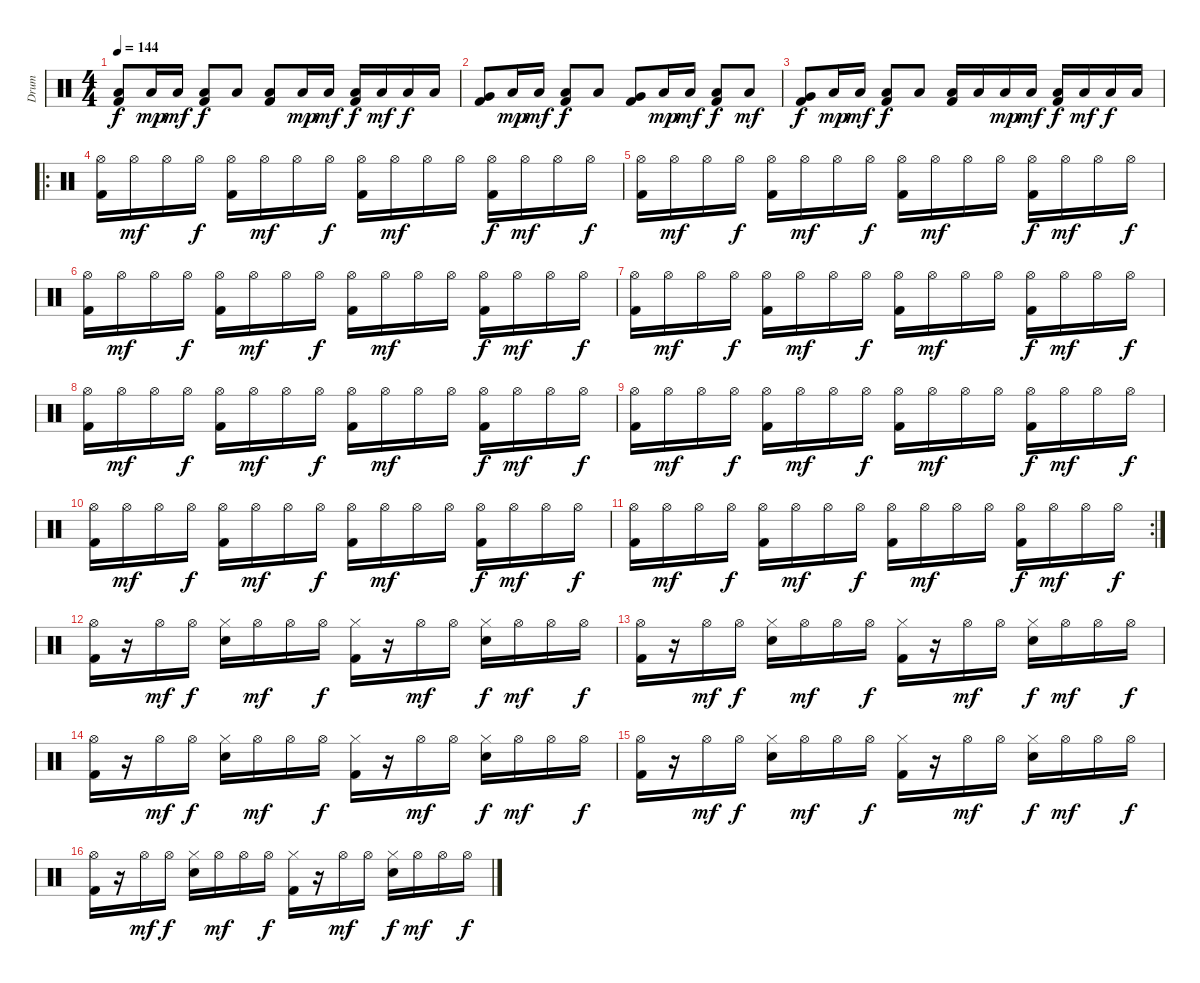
\track ("Drum" "Drum") {instrument percussion}
\staff {score}
\articulation defaults
\ts (4 4)
\tempo 144
\clef neutral
\ks c
("Kick (hit) 2" "Low Floor Tom (hit)").8{dy f} "Low Floor Tom (hit)".16{dy mp} "Low Floor Tom (hit)".16{dy mf} ("Kick (hit) 2" "Low Floor Tom (hit)").8{dy f} "Low Floor Tom (hit)".8 ("Kick (hit) 2" "Low Floor Tom (hit)").8 "Low Floor Tom (hit)".16{dy mp} "Low Floor Tom (hit)".16{dy mf} ("Kick (hit) 2" "Low Floor Tom (hit)").16{dy f} "Low Floor Tom (hit)".16{dy mf} "Low Floor Tom (hit)".16{dy f} "Low Floor Tom (hit)".16 |
("Kick (hit) 2" "Very Low Tom (hit)").8 "Low Floor Tom (hit)".16{dy mp} "Low Floor Tom (hit)".16{dy mf} ("Kick (hit) 2" "Low Floor Tom (hit)").8{dy f} "Low Floor Tom (hit)".8 ("Kick (hit) 2" "Very Low Tom (hit)").8 "Low Floor Tom (hit)".16{dy mp} "Low Floor Tom (hit)".16{dy mf} ("Kick (hit) 2" "Low Floor Tom (hit)").8{dy f} "Low Floor Tom (hit)".8{dy mf} |
("Kick (hit) 2" "Very Low Tom (hit)").8{dy f} "Low Floor Tom (hit)".16{dy mp} "Low Floor Tom (hit)".16{dy mf} ("Kick (hit) 2" "Low Floor Tom (hit)").8{dy f} "Low Floor Tom (hit)".8 ("Kick (hit) 2" "Low Floor Tom (hit)").16 "Low Floor Tom (hit)".16 "Low Floor Tom (hit)".16{dy mp} "Low Floor Tom (hit)".16{dy mf} ("Kick (hit) 2" "Low Floor Tom (hit)").16{dy f} "Low Floor Tom (hit)".16{dy mf} "Low Floor Tom (hit)".16{dy f} "Low Floor Tom (hit)".16 |
\ro
("Kick (hit) 2" "Hi-Hat (open)").16 "Hi-Hat (open)".16{dy mf} "Hi-Hat (open)".16 "Hi-Hat (open)".16{dy f} ("Kick (hit) 2" "Hi-Hat (open)").16 "Hi-Hat (open)".16{dy mf} "Hi-Hat (open)".16 "Hi-Hat (open)".16{dy f} ("Kick (hit) 2" "Hi-Hat (open)").16 "Hi-Hat (open)".16{dy mf} "Hi-Hat (open)".16 "Hi-Hat (open)".16 ("Kick (hit) 2" "Hi-Hat (open)").16{dy f} "Hi-Hat (open)".16{dy mf} "Hi-Hat (open)".16 "Hi-Hat (open)".16{dy f} |
("Kick (hit) 2" "Hi-Hat (open)").16 "Hi-Hat (open)".16{dy mf} "Hi-Hat (open)".16 "Hi-Hat (open)".16{dy f} ("Kick (hit) 2" "Hi-Hat (open)").16 "Hi-Hat (open)".16{dy mf} "Hi-Hat (open)".16 "Hi-Hat (open)".16{dy f} ("Kick (hit) 2" "Hi-Hat (open)").16 "Hi-Hat (open)".16{dy mf} "Hi-Hat (open)".16 "Hi-Hat (open)".16 ("Kick (hit) 2" "Hi-Hat (open)").16{dy f} "Hi-Hat (open)".16{dy mf} "Hi-Hat (open)".16 "Hi-Hat (open)".16{dy f} |
("Kick (hit) 2" "Hi-Hat (open)").16 "Hi-Hat (open)".16{dy mf} "Hi-Hat (open)".16 "Hi-Hat (open)".16{dy f} ("Kick (hit) 2" "Hi-Hat (open)").16 "Hi-Hat (open)".16{dy mf} "Hi-Hat (open)".16 "Hi-Hat (open)".16{dy f} ("Kick (hit) 2" "Hi-Hat (open)").16 "Hi-Hat (open)".16{dy mf} "Hi-Hat (open)".16 "Hi-Hat (open)".16 ("Kick (hit) 2" "Hi-Hat (open)").16{dy f} "Hi-Hat (open)".16{dy mf} "Hi-Hat (open)".16 "Hi-Hat (open)".16{dy f} |
("Kick (hit) 2" "Hi-Hat (open)").16 "Hi-Hat (open)".16{dy mf} "Hi-Hat (open)".16 "Hi-Hat (open)".16{dy f} ("Kick (hit) 2" "Hi-Hat (open)").16 "Hi-Hat (open)".16{dy mf} "Hi-Hat (open)".16 "Hi-Hat (open)".16{dy f} ("Kick (hit) 2" "Hi-Hat (open)").16 "Hi-Hat (open)".16{dy mf} "Hi-Hat (open)".16 "Hi-Hat (open)".16 ("Kick (hit) 2" "Hi-Hat (open)").16{dy f} "Hi-Hat (open)".16{dy mf} "Hi-Hat (open)".16 "Hi-Hat (open)".16{dy f} |
("Kick (hit) 2" "Hi-Hat (open)").16 "Hi-Hat (open)".16{dy mf} "Hi-Hat (open)".16 "Hi-Hat (open)".16{dy f} ("Kick (hit) 2" "Hi-Hat (open)").16 "Hi-Hat (open)".16{dy mf} "Hi-Hat (open)".16 "Hi-Hat (open)".16{dy f} ("Kick (hit) 2" "Hi-Hat (open)").16 "Hi-Hat (open)".16{dy mf} "Hi-Hat (open)".16 "Hi-Hat (open)".16 ("Kick (hit) 2" "Hi-Hat (open)").16{dy f} "Hi-Hat (open)".16{dy mf} "Hi-Hat (open)".16 "Hi-Hat (open)".16{dy f} |
("Kick (hit) 2" "Hi-Hat (open)").16 "Hi-Hat (open)".16{dy mf} "Hi-Hat (open)".16 "Hi-Hat (open)".16{dy f} ("Kick (hit) 2" "Hi-Hat (open)").16 "Hi-Hat (open)".16{dy mf} "Hi-Hat (open)".16 "Hi-Hat (open)".16{dy f} ("Kick (hit) 2" "Hi-Hat (open)").16 "Hi-Hat (open)".16{dy mf} "Hi-Hat (open)".16 "Hi-Hat (open)".16 ("Kick (hit) 2" "Hi-Hat (open)").16{dy f} "Hi-Hat (open)".16{dy mf} "Hi-Hat (open)".16 "Hi-Hat (open)".16{dy f} |
("Kick (hit) 2" "Hi-Hat (open)").16 "Hi-Hat (open)".16{dy mf} "Hi-Hat (open)".16 "Hi-Hat (open)".16{dy f} ("Kick (hit) 2" "Hi-Hat (open)").16 "Hi-Hat (open)".16{dy mf} "Hi-Hat (open)".16 "Hi-Hat (open)".16{dy f} ("Kick (hit) 2" "Hi-Hat (open)").16 "Hi-Hat (open)".16{dy mf} "Hi-Hat (open)".16 "Hi-Hat (open)".16 ("Kick (hit) 2" "Hi-Hat (open)").16{dy f} "Hi-Hat (open)".16{dy mf} "Hi-Hat (open)".16 "Hi-Hat (open)".16{dy f} |
\rc 2
("Kick (hit) 2" "Hi-Hat (open)").16 "Hi-Hat (open)".16{dy mf} "Hi-Hat (open)".16 "Hi-Hat (open)".16{dy f} ("Kick (hit) 2" "Hi-Hat (open)").16 "Hi-Hat (open)".16{dy mf} "Hi-Hat (open)".16 "Hi-Hat (open)".16{dy f} ("Kick (hit) 2" "Hi-Hat (open)").16 "Hi-Hat (open)".16{dy mf} "Hi-Hat (open)".16 "Hi-Hat (open)".16 ("Kick (hit) 2" "Hi-Hat (open)").16{dy f} "Hi-Hat (open)".16{dy mf} "Hi-Hat (open)".16 "Hi-Hat (open)".16{dy f} |
("Kick (hit) 2" "Hi-Hat (open)").16 r.16 "Hi-Hat (open)".16{dy mf} "Hi-Hat (open)".16{dy f} ("Snare (hit) 2" "Hi-Hat (closed)").16 "Hi-Hat (open)".16{dy mf} "Hi-Hat (open)".16 "Hi-Hat (open)".16{dy f} ("Kick (hit) 2" "Hi-Hat (closed)").16 r.16 "Hi-Hat (open)".16{dy mf} "Hi-Hat (open)".16 ("Snare (hit) 2" "Hi-Hat (closed)").16{dy f} "Hi-Hat (open)".16{dy mf} "Hi-Hat (open)".16 "Hi-Hat (open)".16{dy f} |
("Kick (hit) 2" "Hi-Hat (open)").16 r.16 "Hi-Hat (open)".16{dy mf} "Hi-Hat (open)".16{dy f} ("Snare (hit) 2" "Hi-Hat (closed)").16 "Hi-Hat (open)".16{dy mf} "Hi-Hat (open)".16 "Hi-Hat (open)".16{dy f} ("Kick (hit) 2" "Hi-Hat (closed)").16 r.16 "Hi-Hat (open)".16{dy mf} "Hi-Hat (open)".16 ("Snare (hit) 2" "Hi-Hat (closed)").16{dy f} "Hi-Hat (open)".16{dy mf} "Hi-Hat (open)".16 "Hi-Hat (open)".16{dy f} |
("Kick (hit) 2" "Hi-Hat (open)").16 r.16 "Hi-Hat (open)".16{dy mf} "Hi-Hat (open)".16{dy f} ("Snare (hit) 2" "Hi-Hat (closed)").16 "Hi-Hat (open)".16{dy mf} "Hi-Hat (open)".16 "Hi-Hat (open)".16{dy f} ("Kick (hit) 2" "Hi-Hat (closed)").16 r.16 "Hi-Hat (open)".16{dy mf} "Hi-Hat (open)".16 ("Snare (hit) 2" "Hi-Hat (closed)").16{dy f} "Hi-Hat (open)".16{dy mf} "Hi-Hat (open)".16 "Hi-Hat (open)".16{dy f} |
("Kick (hit) 2" "Hi-Hat (open)").16 r.16 "Hi-Hat (open)".16{dy mf} "Hi-Hat (open)".16{dy f} ("Snare (hit) 2" "Hi-Hat (closed)").16 "Hi-Hat (open)".16{dy mf} "Hi-Hat (open)".16 "Hi-Hat (open)".16{dy f} ("Kick (hit) 2" "Hi-Hat (closed)").16 r.16 "Hi-Hat (open)".16{dy mf} "Hi-Hat (open)".16 ("Snare (hit) 2" "Hi-Hat (closed)").16{dy f} "Hi-Hat (open)".16{dy mf} "Hi-Hat (open)".16 "Hi-Hat (open)".16{dy f} |
("Kick (hit) 2" "Hi-Hat (open)").16 r.16 "Hi-Hat (open)".16{dy mf} "Hi-Hat (open)".16{dy f} ("Snare (hit) 2" "Hi-Hat (closed)").16 "Hi-Hat (open)".16{dy mf} "Hi-Hat (open)".16 "Hi-Hat (open)".16{dy f} ("Kick (hit) 2" "Hi-Hat (closed)").16 r.16 "Hi-Hat (open)".16{dy mf} "Hi-Hat (open)".16 ("Snare (hit) 2" "Hi-Hat (closed)").16{dy f} "Hi-Hat (open)".16{dy mf} "Hi-Hat (open)".16 "Hi-Hat (open)".16{dy f}
